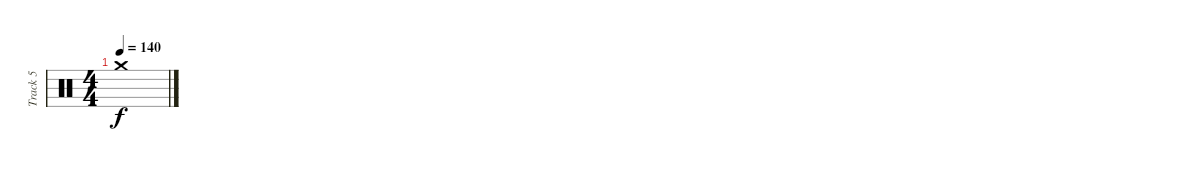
\track ("Track 5" "Track 5") {instrument percussion}
\staff {score}
\articulation defaults
\ts (4 4)
\tempo 140
\clef neutral
\ks c "Crash medium (hit)".1{dy f}
